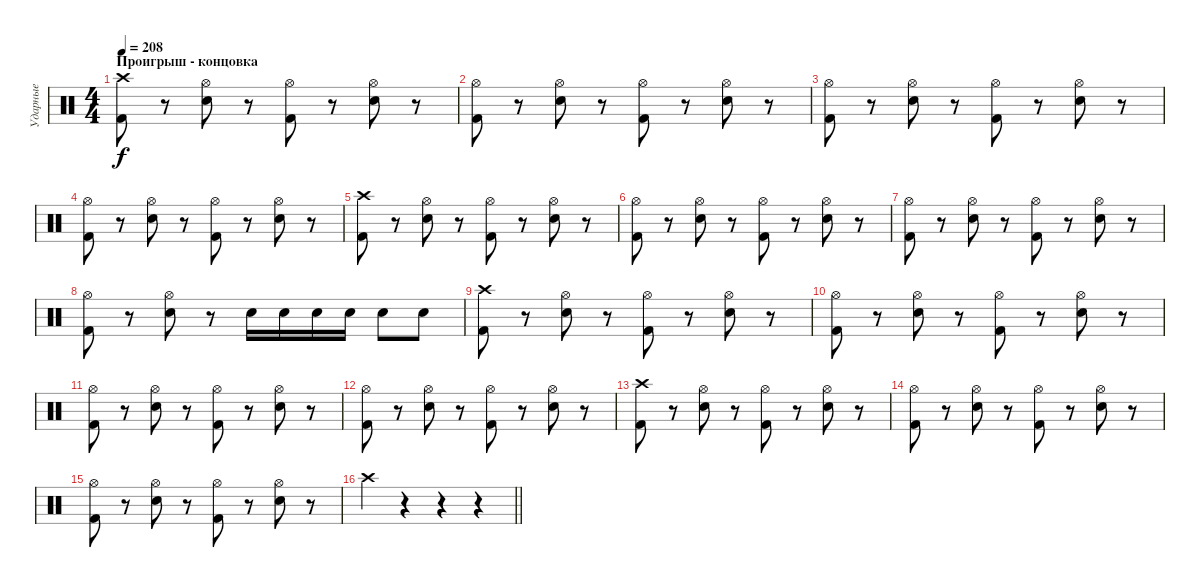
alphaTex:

\track ("Ударные" "Ударные") {instrument percussion}
\staff {score}
\articulation defaults
\ts (4 4)
\section ("" "Проигрыш - концовка")
\tempo 208
\clef neutral
\ks c
("Crash high (hit)" "Kick (hit) 2").8{dy f} r.8 ("Hi-Hat (open)" "Electric Snare (hit)").8 r.8 ("Hi-Hat (open)" "Kick (hit) 2").8 r.8 ("Hi-Hat (open)" "Electric Snare (hit)").8 r.8 |
("Hi-Hat (open)" "Kick (hit) 2").8 r.8 ("Hi-Hat (open)" "Electric Snare (hit)").8 r.8 ("Hi-Hat (open)" "Kick (hit) 2").8 r.8 ("Hi-Hat (open)" "Electric Snare (hit)").8 r.8 |
("Hi-Hat (open)" "Kick (hit) 2").8 r.8 ("Hi-Hat (open)" "Electric Snare (hit)").8 r.8 ("Hi-Hat (open)" "Kick (hit) 2").8 r.8 ("Hi-Hat (open)" "Electric Snare (hit)").8 r.8 |
("Hi-Hat (open)" "Kick (hit) 2").8 r.8 ("Hi-Hat (open)" "Electric Snare (hit)").8 r.8 ("Hi-Hat (open)" "Kick (hit) 2").8 r.8 ("Hi-Hat (open)" "Electric Snare (hit)").8 r.8 |
("Crash high (hit)" "Kick (hit) 2").8 r.8 ("Hi-Hat (open)" "Electric Snare (hit)").8 r.8 ("Hi-Hat (open)" "Kick (hit) 2").8 r.8 ("Hi-Hat (open)" "Electric Snare (hit)").8 r.8 |
("Hi-Hat (open)" "Kick (hit) 2").8 r.8 ("Hi-Hat (open)" "Electric Snare (hit)").8 r.8 ("Hi-Hat (open)" "Kick (hit) 2").8 r.8 ("Hi-Hat (open)" "Electric Snare (hit)").8 r.8 |
("Hi-Hat (open)" "Kick (hit) 2").8 r.8 ("Hi-Hat (open)" "Electric Snare (hit)").8 r.8 ("Hi-Hat (open)" "Kick (hit) 2").8 r.8 ("Hi-Hat (open)" "Electric Snare (hit)").8 r.8 |
("Hi-Hat (open)" "Kick (hit) 2").8 r.8 ("Hi-Hat (open)" "Electric Snare (hit)").8 r.8 "Electric Snare (hit)".16 "Electric Snare (hit)".16 "Electric Snare (hit)".16 "Electric Snare (hit)".16 "Electric Snare (hit)".8 "Electric Snare (hit)".8 |
("Crash high (hit)" "Kick (hit) 2").8 r.8 ("Hi-Hat (open)" "Electric Snare (hit)").8 r.8 ("Hi-Hat (open)" "Kick (hit) 2").8 r.8 ("Hi-Hat (open)" "Electric Snare (hit)").8 r.8 |
("Hi-Hat (open)" "Kick (hit) 2").8 r.8 ("Hi-Hat (open)" "Electric Snare (hit)").8 r.8 ("Hi-Hat (open)" "Kick (hit) 2").8 r.8 ("Hi-Hat (open)" "Electric Snare (hit)").8 r.8 |
("Hi-Hat (open)" "Kick (hit) 2").8 r.8 ("Hi-Hat (open)" "Electric Snare (hit)").8 r.8 ("Hi-Hat (open)" "Kick (hit) 2").8 r.8 ("Hi-Hat (open)" "Electric Snare (hit)").8 r.8 |
("Hi-Hat (open)" "Kick (hit) 2").8 r.8 ("Hi-Hat (open)" "Electric Snare (hit)").8 r.8 ("Hi-Hat (open)" "Kick (hit) 2").8 r.8 ("Hi-Hat (open)" "Electric Snare (hit)").8 r.8 |
("Crash high (hit)" "Kick (hit) 2").8 r.8 ("Hi-Hat (open)" "Electric Snare (hit)").8 r.8 ("Hi-Hat (open)" "Kick (hit) 2").8 r.8 ("Hi-Hat (open)" "Electric Snare (hit)").8 r.8 |
("Hi-Hat (open)" "Kick (hit) 2").8 r.8 ("Hi-Hat (open)" "Electric Snare (hit)").8 r.8 ("Hi-Hat (open)" "Kick (hit) 2").8 r.8 ("Hi-Hat (open)" "Electric Snare (hit)").8 r.8 |
("Hi-Hat (open)" "Kick (hit) 2").8 r.8 ("Hi-Hat (open)" "Electric Snare (hit)").8 r.8 ("Hi-Hat (open)" "Kick (hit) 2").8 r.8 ("Hi-Hat (open)" "Electric Snare (hit)").8 r.8 |
\barLineRight lightlight "Crash high (hit)".4
r.4 r.4 r.4
